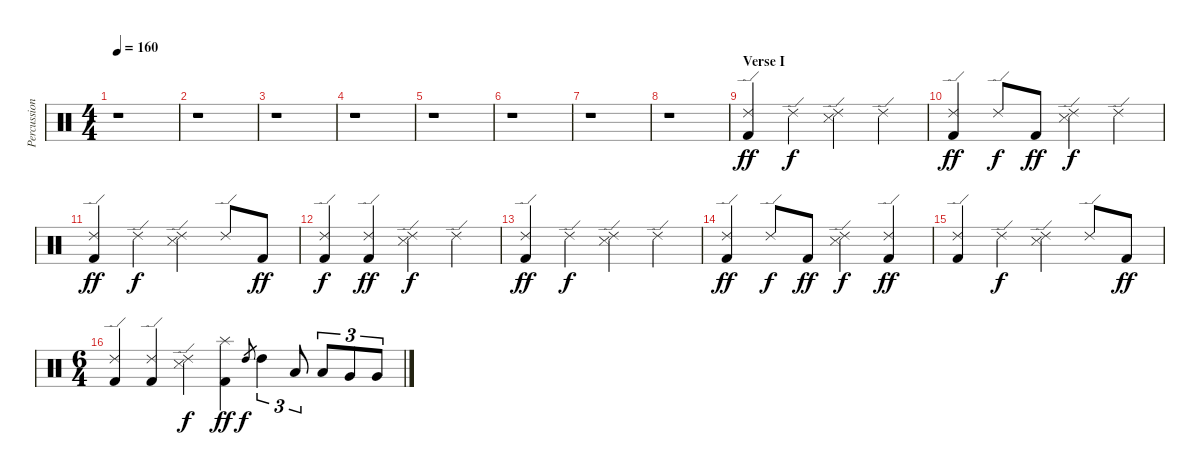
\track ("Percussion" "Percussion") {instrument percussion}
\staff {score}
\articulation defaults
\ts (4 4)
\tempo 160
\clef neutral
\ks c
r.1{dy ff} |
r.1 |
r.1 |
r.1 |
r.1 |
r.1 |
r.1 |
r.1 |
\section ("" "Verse I")
("Ride (edge) 2" "Kick (hit) 2").4 "Ride (edge) 2".4{dy f} ("Ride (edge) 2" "Snare (side stick) 3").4 "Ride (edge) 2".4 |
("Ride (edge) 2" "Kick (hit) 2").4{dy ff} "Ride (edge) 2".8{dy f} "Kick (hit) 2".8{dy ff} ("Ride (edge) 2" "Snare (side stick) 3").4{dy f} "Ride (edge) 2".4 |
("Ride (edge) 2" "Kick (hit) 2").4{dy ff} "Ride (edge) 2".4{dy f} ("Ride (edge) 2" "Snare (side stick) 3").4 "Ride (edge) 2".8 "Kick (hit) 2".8{dy ff} |
("Ride (edge) 2" "Kick (hit) 2").4{dy f} ("Ride (edge) 2" "Kick (hit) 2").4{dy ff} ("Ride (edge) 2" "Snare (side stick) 3").4{dy f} "Ride (edge) 2".4 |
("Ride (edge) 2" "Kick (hit) 2").4{dy ff} "Ride (edge) 2".4{dy f} ("Ride (edge) 2" "Snare (side stick) 3").4 "Ride (edge) 2".4 |
("Ride (edge) 2" "Kick (hit) 2").4{dy ff} "Ride (edge) 2".8{dy f} "Kick (hit) 2".8{dy ff} ("Ride (edge) 2" "Snare (side stick) 3").4{dy f} ("Ride (edge) 2" "Kick (hit) 2").4{dy ff} |
("Ride (edge) 2" "Kick (hit) 2").4 "Ride (edge) 2".4{dy f} ("Ride (edge) 2" "Snare (side stick) 3").4 "Ride (edge) 2".8 "Kick (hit) 2".8{dy ff} |
\ts (6 4)
("Ride (edge) 2" "Kick (hit) 2").4 ("Ride (edge) 2" "Kick (hit) 2").4 ("Ride (edge) 2" "Snare (side stick) 3").4{dy f} ("Splash (hit)" "Kick (hit) 2").4{dy ff} "High Tom (hit)".8{gr dy f} "High Tom (hit)".4{tu (3 2)} "Low Tom (hit)".8{tu (3 2)} "Low Tom (hit)".8{tu (3 2)} "Very Low Tom (hit)".8{tu (3 2)} "Very Low Tom (hit)".8{tu (3 2)}
